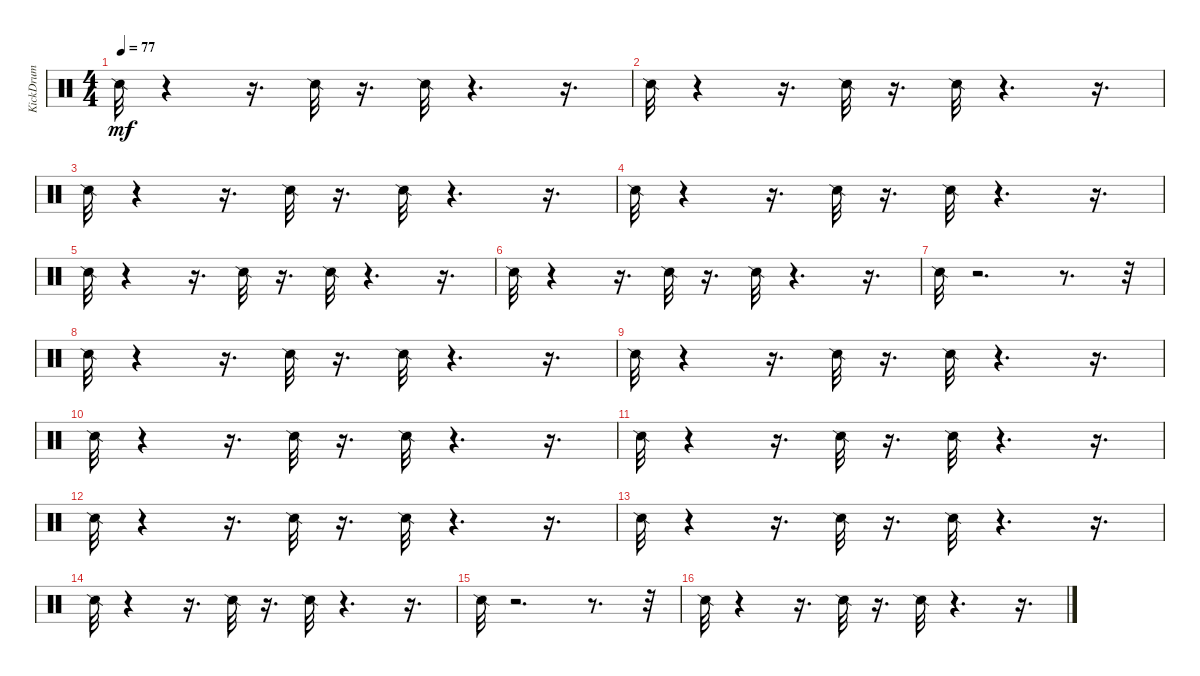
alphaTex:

\track ("KickDrum" "KickDrum") {instrument percussion}
\staff {score}
\articulation defaults
\ts (4 4)
\tempo 77
\clef neutral
\ks c "Snare (side stick) 2".32{dy mf}
r.4 r.16{d} "Snare (side stick) 2".32 r.16{d} "Snare (side stick) 2".32 r.4{d} r.16{d} |
"Snare (side stick) 2".32 r.4 r.16{d} "Snare (side stick) 2".32 r.16{d} "Snare (side stick) 2".32 r.4{d} r.16{d} |
"Snare (side stick) 2".32 r.4 r.16{d} "Snare (side stick) 2".32 r.16{d} "Snare (side stick) 2".32 r.4{d} r.16{d} |
"Snare (side stick) 2".32 r.4 r.16{d} "Snare (side stick) 2".32 r.16{d} "Snare (side stick) 2".32 r.4{d} r.16{d} |
"Snare (side stick) 2".32 r.4 r.16{d} "Snare (side stick) 2".32 r.16{d} "Snare (side stick) 2".32 r.4{d} r.16{d} |
"Snare (side stick) 2".32 r.4 r.16{d} "Snare (side stick) 2".32 r.16{d} "Snare (side stick) 2".32 r.4{d} r.16{d} |
"Snare (side stick) 2".32 r.2{d} r.8{d} r.32 |
"Snare (side stick) 2".32 r.4 r.16{d} "Snare (side stick) 2".32 r.16{d} "Snare (side stick) 2".32 r.4{d} r.16{d} |
"Snare (side stick) 2".32 r.4 r.16{d} "Snare (side stick) 2".32 r.16{d} "Snare (side stick) 2".32 r.4{d} r.16{d} |
"Snare (side stick) 2".32 r.4 r.16{d} "Snare (side stick) 2".32 r.16{d} "Snare (side stick) 2".32 r.4{d} r.16{d} |
"Snare (side stick) 2".32 r.4 r.16{d} "Snare (side stick) 2".32 r.16{d} "Snare (side stick) 2".32 r.4{d} r.16{d} |
"Snare (side stick) 2".32 r.4 r.16{d} "Snare (side stick) 2".32 r.16{d} "Snare (side stick) 2".32 r.4{d} r.16{d} |
"Snare (side stick) 2".32 r.4 r.16{d} "Snare (side stick) 2".32 r.16{d} "Snare (side stick) 2".32 r.4{d} r.16{d} |
"Snare (side stick) 2".32 r.4 r.16{d} "Snare (side stick) 2".32 r.16{d} "Snare (side stick) 2".32 r.4{d} r.16{d} |
"Snare (side stick) 2".32 r.2{d} r.8{d} r.32 |
"Snare (side stick) 2".32 r.4 r.16{d} "Snare (side stick) 2".32 r.16{d} "Snare (side stick) 2".32 r.4{d} r.16{d}
